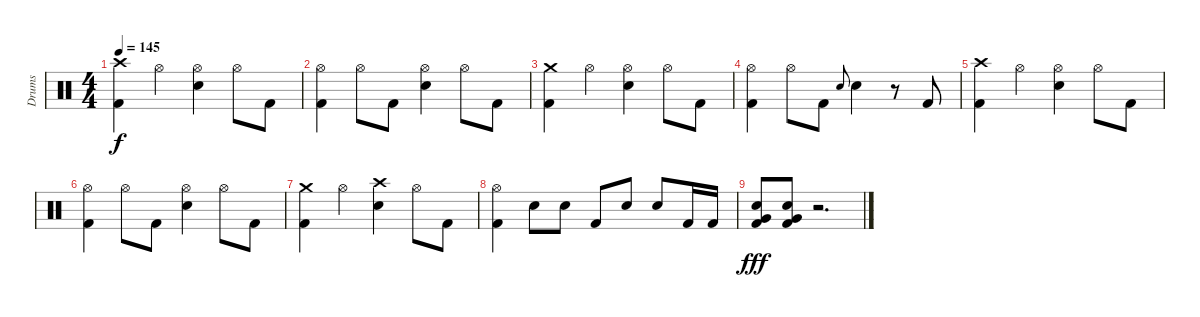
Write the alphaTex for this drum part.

\track ("Drums" "Drums") {instrument percussion}
\staff {score}
\articulation defaults
\ts (4 4)
\tempo 145
\clef neutral
\ks c
("Crash high (hit)" "Kick (hit) 2").4{dy f} "Hi-Hat (open)".4 ("Hi-Hat (open)" "Electric Snare (hit)").4 "Hi-Hat (open)".8 "Kick (hit) 2".8 |
("Hi-Hat (open)" "Kick (hit) 2").4 "Hi-Hat (open)".8 "Kick (hit) 2".8 ("Hi-Hat (open)" "Electric Snare (hit)").4 "Hi-Hat (open)".8 "Kick (hit) 2".8 |
("Crash medium (hit)" "Kick (hit) 2").4 "Hi-Hat (open)".4 ("Hi-Hat (open)" "Electric Snare (hit)").4 "Hi-Hat (open)".8 "Kick (hit) 2".8 |
("Hi-Hat (open)" "Kick (hit) 2").4 "Hi-Hat (open)".8 "Kick (hit) 2".8 "Electric Snare (hit)".8{gr onbeat} "Electric Snare (hit)".4 r.8 "Kick (hit) 2".8 |
("Crash high (hit)" "Kick (hit) 2").4 "Hi-Hat (open)".4 ("Hi-Hat (open)" "Electric Snare (hit)").4 "Hi-Hat (open)".8 "Kick (hit) 2".8 |
("Hi-Hat (open)" "Kick (hit) 2").4 "Hi-Hat (open)".8 "Kick (hit) 2".8 ("Hi-Hat (open)" "Electric Snare (hit)").4 "Hi-Hat (open)".8 "Kick (hit) 2".8 |
("Crash medium (hit)" "Kick (hit) 2").4 "Hi-Hat (open)".4 ("Crash high (hit)" "Electric Snare (hit)").4 "Hi-Hat (open)".8 "Kick (hit) 2".8 |
("Hi-Hat (open)" "Kick (hit) 2").4 "Electric Snare (hit)".8 "Electric Snare (hit)".8 "Kick (hit) 2".8 "Electric Snare (hit)".8 "Electric Snare (hit)".8 "Kick (hit) 2".16 "Kick (hit) 2".16 |
("Electric Snare (hit)" "Very Low Tom (hit)" "Kick (hit) 2").8{dy fff} ("Electric Snare (hit)" "Very Low Tom (hit)" "Kick (hit) 2").8 r.2{d}
